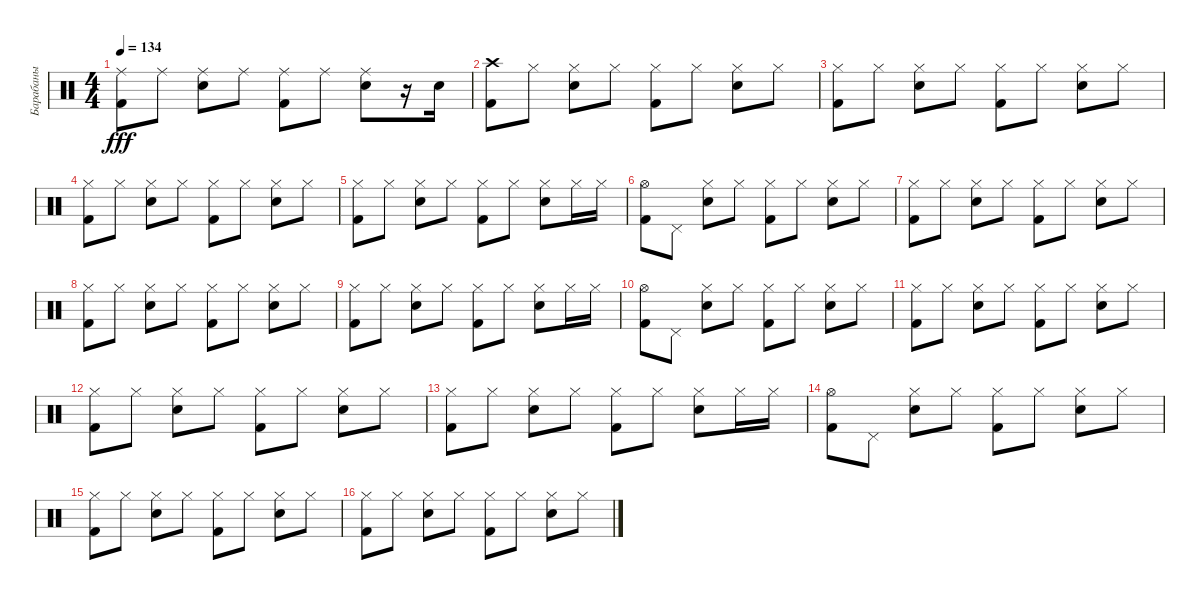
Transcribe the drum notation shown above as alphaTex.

\track ("Барабаны" "Барабаны") {instrument percussion}
\staff {score}
\articulation defaults
\ts (4 4)
\tempo 134
\clef neutral
\ks c
("Ride (middle)" "Kick (hit) 2").8{dy fff} "Ride (middle)".8 ("Ride (middle)" "Electric Snare (hit)").8 "Ride (middle)".8 ("Ride (middle)" "Kick (hit) 2").8 "Ride (middle)".8 ("Ride (middle)" "Electric Snare (hit)").8 r.16 "Electric Snare (hit)".16 |
("Crash high (hit)" "Kick (hit) 2").8 "Hi-Hat (closed)".8 ("Hi-Hat (closed)" "Electric Snare (hit)").8 "Hi-Hat (closed)".8 ("Hi-Hat (closed)" "Kick (hit) 2").8 "Hi-Hat (closed)".8 ("Hi-Hat (closed)" "Electric Snare (hit)").8 "Hi-Hat (closed)".8 |
("Hi-Hat (closed)" "Kick (hit) 2").8 "Hi-Hat (closed)".8 ("Hi-Hat (closed)" "Electric Snare (hit)").8 "Hi-Hat (closed)".8 ("Hi-Hat (closed)" "Kick (hit) 2").8 "Hi-Hat (closed)".8 ("Hi-Hat (closed)" "Electric Snare (hit)").8 "Hi-Hat (closed)".8 |
("Hi-Hat (closed)" "Kick (hit) 2").8 "Hi-Hat (closed)".8 ("Hi-Hat (closed)" "Electric Snare (hit)").8 "Hi-Hat (closed)".8 ("Hi-Hat (closed)" "Kick (hit) 2").8 "Hi-Hat (closed)".8 ("Hi-Hat (closed)" "Electric Snare (hit)").8 "Hi-Hat (closed)".8 |
("Hi-Hat (closed)" "Kick (hit) 2").8 "Hi-Hat (closed)".8 ("Hi-Hat (closed)" "Electric Snare (hit)").8 "Hi-Hat (closed)".8 ("Hi-Hat (closed)" "Kick (hit) 2").8 "Hi-Hat (closed)".8 ("Hi-Hat (closed)" "Electric Snare (hit)").8 "Hi-Hat (closed)".16 "Hi-Hat (closed)".16 |
("Hi-Hat (open)" "Kick (hit) 2").8 "Pedal Hi-Hat (hit)".8 ("Hi-Hat (closed)" "Electric Snare (hit)").8 "Hi-Hat (closed)".8 ("Hi-Hat (closed)" "Kick (hit) 2").8 "Hi-Hat (closed)".8 ("Hi-Hat (closed)" "Electric Snare (hit)").8 "Hi-Hat (closed)".8 |
("Hi-Hat (closed)" "Kick (hit) 2").8 "Hi-Hat (closed)".8 ("Hi-Hat (closed)" "Electric Snare (hit)").8 "Hi-Hat (closed)".8 ("Hi-Hat (closed)" "Kick (hit) 2").8 "Hi-Hat (closed)".8 ("Hi-Hat (closed)" "Electric Snare (hit)").8 "Hi-Hat (closed)".8 |
("Hi-Hat (closed)" "Kick (hit) 2").8 "Hi-Hat (closed)".8 ("Hi-Hat (closed)" "Electric Snare (hit)").8 "Hi-Hat (closed)".8 ("Hi-Hat (closed)" "Kick (hit) 2").8 "Hi-Hat (closed)".8 ("Hi-Hat (closed)" "Electric Snare (hit)").8 "Hi-Hat (closed)".8 |
("Hi-Hat (closed)" "Kick (hit) 2").8 "Hi-Hat (closed)".8 ("Hi-Hat (closed)" "Electric Snare (hit)").8 "Hi-Hat (closed)".8 ("Hi-Hat (closed)" "Kick (hit) 2").8 "Hi-Hat (closed)".8 ("Hi-Hat (closed)" "Electric Snare (hit)").8 "Hi-Hat (closed)".16 "Hi-Hat (closed)".16 |
("Hi-Hat (open)" "Kick (hit) 2").8 "Pedal Hi-Hat (hit)".8 ("Hi-Hat (closed)" "Electric Snare (hit)").8 "Hi-Hat (closed)".8 ("Hi-Hat (closed)" "Kick (hit) 2").8 "Hi-Hat (closed)".8 ("Hi-Hat (closed)" "Electric Snare (hit)").8 "Hi-Hat (closed)".8 |
("Hi-Hat (closed)" "Kick (hit) 2").8 "Hi-Hat (closed)".8 ("Hi-Hat (closed)" "Electric Snare (hit)").8 "Hi-Hat (closed)".8 ("Hi-Hat (closed)" "Kick (hit) 2").8 "Hi-Hat (closed)".8 ("Hi-Hat (closed)" "Electric Snare (hit)").8 "Hi-Hat (closed)".8 |
("Hi-Hat (closed)" "Kick (hit) 2").8 "Hi-Hat (closed)".8 ("Hi-Hat (closed)" "Electric Snare (hit)").8 "Hi-Hat (closed)".8 ("Hi-Hat (closed)" "Kick (hit) 2").8 "Hi-Hat (closed)".8 ("Hi-Hat (closed)" "Electric Snare (hit)").8 "Hi-Hat (closed)".8 |
("Hi-Hat (closed)" "Kick (hit) 2").8 "Hi-Hat (closed)".8 ("Hi-Hat (closed)" "Electric Snare (hit)").8 "Hi-Hat (closed)".8 ("Hi-Hat (closed)" "Kick (hit) 2").8 "Hi-Hat (closed)".8 ("Hi-Hat (closed)" "Electric Snare (hit)").8 "Hi-Hat (closed)".16 "Hi-Hat (closed)".16 |
("Hi-Hat (open)" "Kick (hit) 2").8 "Pedal Hi-Hat (hit)".8 ("Hi-Hat (closed)" "Electric Snare (hit)").8 "Hi-Hat (closed)".8 ("Hi-Hat (closed)" "Kick (hit) 2").8 "Hi-Hat (closed)".8 ("Hi-Hat (closed)" "Electric Snare (hit)").8 "Hi-Hat (closed)".8 |
("Hi-Hat (closed)" "Kick (hit) 2").8 "Hi-Hat (closed)".8 ("Hi-Hat (closed)" "Electric Snare (hit)").8 "Hi-Hat (closed)".8 ("Hi-Hat (closed)" "Kick (hit) 2").8 "Hi-Hat (closed)".8 ("Hi-Hat (closed)" "Electric Snare (hit)").8 "Hi-Hat (closed)".8 |
("Hi-Hat (closed)" "Kick (hit) 2").8 "Hi-Hat (closed)".8 ("Hi-Hat (closed)" "Electric Snare (hit)").8 "Hi-Hat (closed)".8 ("Hi-Hat (closed)" "Kick (hit) 2").8 "Hi-Hat (closed)".8 ("Hi-Hat (closed)" "Electric Snare (hit)").8 "Hi-Hat (closed)".8
